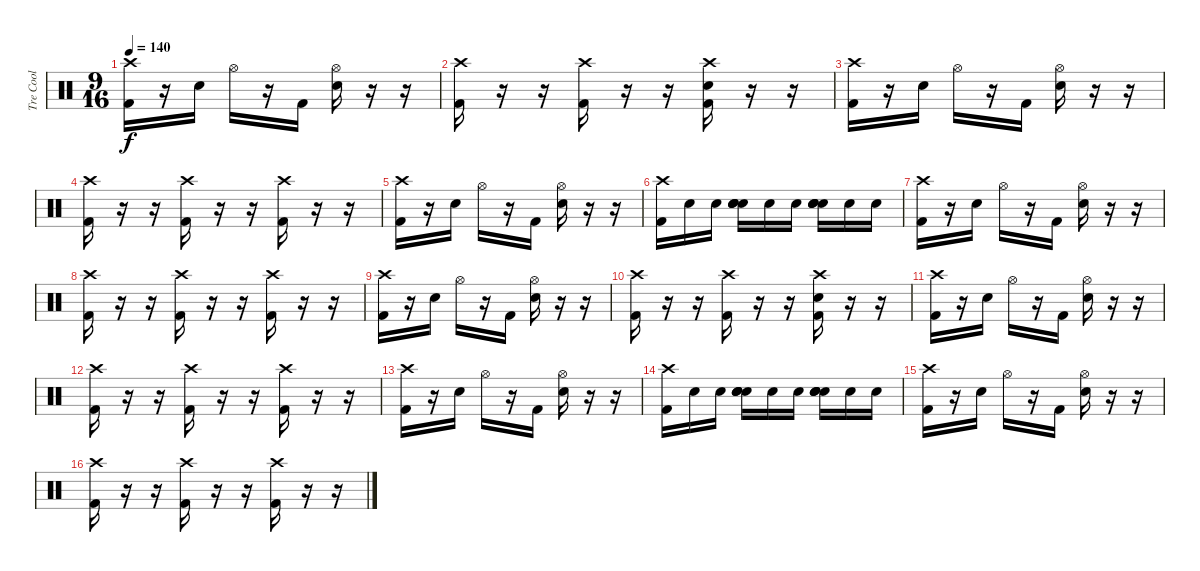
\track ("Tre Cool" "Tre Cool") {instrument percussion}
\staff {score}
\articulation defaults
\ts (9 16)
\tempo 140
\clef neutral
\ks c
("Crash high (hit)" "Kick (hit) 2").16{dy f} r.16 "Snare (hit) 2".16 "Hi-Hat (open)".16 r.16 "Kick (hit) 2".16 ("Hi-Hat (open)" "Snare (hit) 2").16 r.16 r.16 |
("Crash high (hit)" "Kick (hit) 2").16 r.16 r.16 ("Crash high (hit)" "Kick (hit) 2").16 r.16 r.16 ("Crash high (hit)" "Snare (hit) 2" "Kick (hit) 2").16 r.16 r.16 |
("Crash high (hit)" "Kick (hit) 2").16 r.16 "Snare (hit) 2".16 "Hi-Hat (open)".16 r.16 "Kick (hit) 2".16 ("Hi-Hat (open)" "Snare (hit) 2").16 r.16 r.16 |
("Crash high (hit)" "Kick (hit) 2").16 r.16 r.16 ("Crash high (hit)" "Kick (hit) 2").16 r.16 r.16 ("Crash high (hit)" "Kick (hit) 2").16 r.16 r.16 |
("Crash high (hit)" "Kick (hit) 2").16 r.16 "Snare (hit) 2".16 "Hi-Hat (open)".16 r.16 "Kick (hit) 2".16 ("Hi-Hat (open)" "Snare (hit) 2").16 r.16 r.16 |
("Crash high (hit)" "Kick (hit) 2").16 "Snare (hit) 2".16 "Snare (hit) 2".16 ("Snare (hit) 2" "Snare (hit) 2" "Snare (hit) 2" "Snare (hit) 2").16 "Snare (hit) 2".16 "Snare (hit) 2".16 ("Snare (hit) 2" "Snare (hit) 2" "Snare (hit) 2" "Snare (hit) 2").16 "Snare (hit) 2".16 "Snare (hit) 2".16 |
("Crash high (hit)" "Kick (hit) 2").16 r.16 "Snare (hit) 2".16 "Hi-Hat (open)".16 r.16 "Kick (hit) 2".16 ("Hi-Hat (open)" "Snare (hit) 2").16 r.16 r.16 |
("Crash high (hit)" "Kick (hit) 2").16 r.16 r.16 ("Crash high (hit)" "Kick (hit) 2").16 r.16 r.16 ("Crash high (hit)" "Kick (hit) 2").16 r.16 r.16 |
("Crash high (hit)" "Kick (hit) 2").16 r.16 "Snare (hit) 2".16 "Hi-Hat (open)".16 r.16 "Kick (hit) 2".16 ("Hi-Hat (open)" "Snare (hit) 2").16 r.16 r.16 |
("Crash high (hit)" "Kick (hit) 2").16 r.16 r.16 ("Crash high (hit)" "Kick (hit) 2").16 r.16 r.16 ("Crash high (hit)" "Snare (hit) 2" "Kick (hit) 2").16 r.16 r.16 |
("Crash high (hit)" "Kick (hit) 2").16 r.16 "Snare (hit) 2".16 "Hi-Hat (open)".16 r.16 "Kick (hit) 2".16 ("Hi-Hat (open)" "Snare (hit) 2").16 r.16 r.16 |
("Crash high (hit)" "Kick (hit) 2").16 r.16 r.16 ("Crash high (hit)" "Kick (hit) 2").16 r.16 r.16 ("Crash high (hit)" "Kick (hit) 2").16 r.16 r.16 |
("Crash high (hit)" "Kick (hit) 2").16 r.16 "Snare (hit) 2".16 "Hi-Hat (open)".16 r.16 "Kick (hit) 2".16 ("Hi-Hat (open)" "Snare (hit) 2").16 r.16 r.16 |
("Crash high (hit)" "Kick (hit) 2").16 "Snare (hit) 2".16 "Snare (hit) 2".16 ("Snare (hit) 2" "Snare (hit) 2" "Snare (hit) 2" "Snare (hit) 2").16 "Snare (hit) 2".16 "Snare (hit) 2".16 ("Snare (hit) 2" "Snare (hit) 2" "Snare (hit) 2" "Snare (hit) 2").16 "Snare (hit) 2".16 "Snare (hit) 2".16 |
("Crash high (hit)" "Kick (hit) 2").16 r.16 "Snare (hit) 2".16 "Hi-Hat (open)".16 r.16 "Kick (hit) 2".16 ("Hi-Hat (open)" "Snare (hit) 2").16 r.16 r.16 |
("Crash high (hit)" "Kick (hit) 2").16 r.16 r.16 ("Crash high (hit)" "Kick (hit) 2").16 r.16 r.16 ("Crash high (hit)" "Kick (hit) 2").16 r.16 r.16
